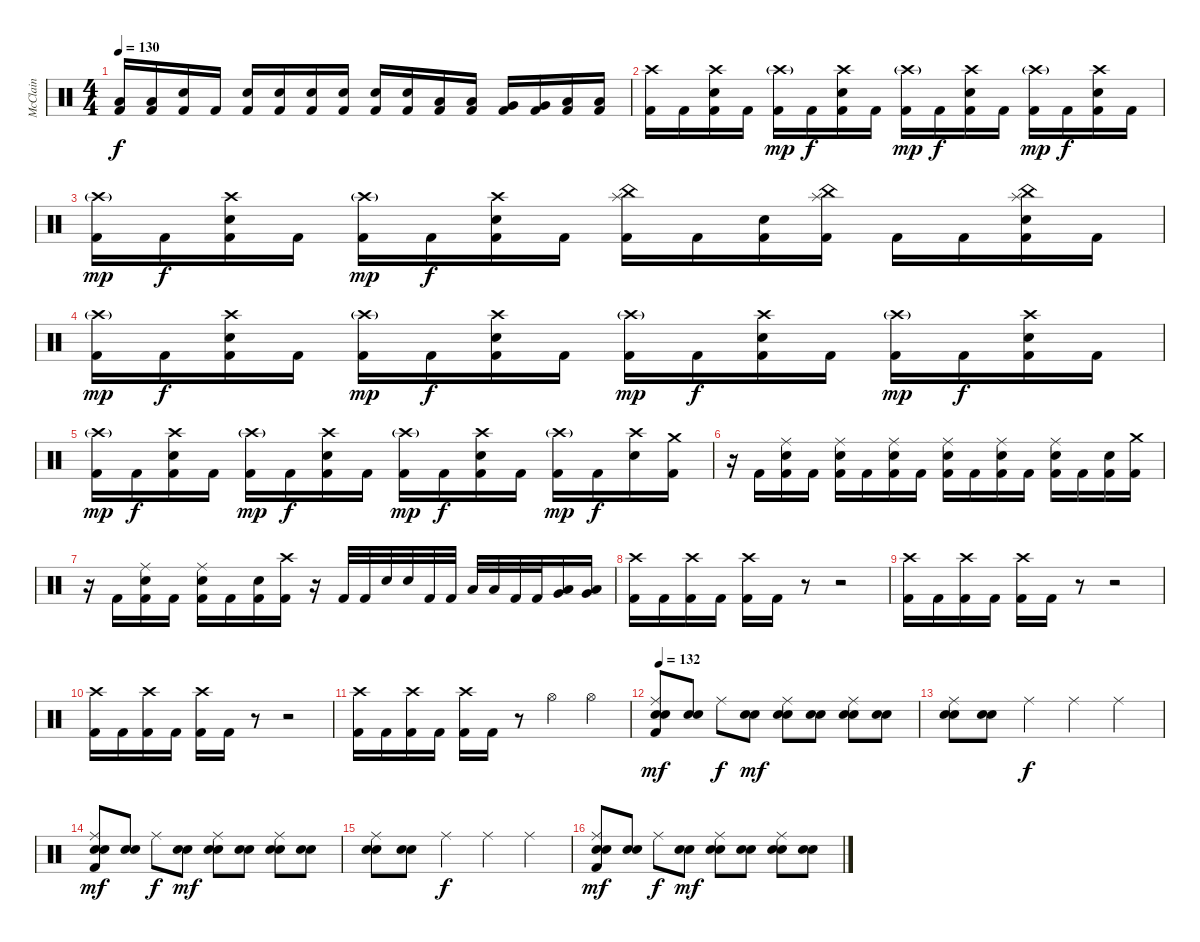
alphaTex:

\track ("McClain" "McClain") {instrument percussion}
\staff {score}
\articulation defaults
\ts (4 4)
\tempo 130
\clef neutral
\ks c
("Low Tom (hit)" "Kick (hit) 2").16{dy f} ("Low Tom (hit)" "Kick (hit) 2").16 ("Electric Snare (hit)" "Kick (hit) 2").16 "Kick (hit) 2".16 ("Electric Snare (hit)" "Kick (hit) 2").16 ("Electric Snare (hit)" "Kick (hit) 2").16 ("Electric Snare (hit)" "Kick (hit) 2").16 ("Electric Snare (hit)" "Kick (hit) 2").16 ("Electric Snare (hit)" "Kick (hit) 2").16 ("Electric Snare (hit)" "Kick (hit) 2").16 ("Low Tom (hit)" "Kick (hit) 2").16 ("Low Tom (hit)" "Kick (hit) 2").16 ("Very Low Tom (hit)" "Kick (hit) 2").16 ("Very Low Tom (hit)" "Kick (hit) 2").16 ("Low Floor Tom (hit)" "Kick (hit) 2").16 ("Low Floor Tom (hit)" "Kick (hit) 2").16 |
("Crash high (hit)" "Kick (hit) 2").16 "Kick (hit) 2".16 ("Crash high (hit)" "Electric Snare (hit)" "Kick (hit) 2").16 "Kick (hit) 2".16 ("Crash high (hit)"{g} "Kick (hit) 2").16{dy mp} "Kick (hit) 2".16{dy f} ("Crash high (hit)" "Electric Snare (hit)" "Kick (hit) 2").16 "Kick (hit) 2".16 ("Crash high (hit)"{g} "Kick (hit) 2").16{dy mp} "Kick (hit) 2".16{dy f} ("Crash high (hit)" "Electric Snare (hit)" "Kick (hit) 2").16 "Kick (hit) 2".16 ("Crash high (hit)"{g} "Kick (hit) 2").16{dy mp} "Kick (hit) 2".16{dy f} ("Crash high (hit)" "Electric Snare (hit)" "Kick (hit) 2").16 "Kick (hit) 2".16 |
("Crash high (hit)"{g} "Kick (hit) 2").16{dy mp} "Kick (hit) 2".16{dy f} ("Crash high (hit)" "Electric Snare (hit)" "Kick (hit) 2").16 "Kick (hit) 2".16 ("Crash high (hit)"{g} "Kick (hit) 2").16{dy mp} "Kick (hit) 2".16{dy f} ("Crash high (hit)" "Electric Snare (hit)" "Kick (hit) 2").16 "Kick (hit) 2".16 ("China (hit)" "Splash (hit)" "Kick (hit) 2").16 "Kick (hit) 2".16 ("Electric Snare (hit)" "Kick (hit) 2").16 ("China (hit)" "Splash (hit)" "Kick (hit) 2").16 "Kick (hit) 2".16 "Kick (hit) 2".16 ("China (hit)" "Splash (hit)" "Electric Snare (hit)" "Kick (hit) 2").16 "Kick (hit) 2".16 |
("Crash high (hit)"{g} "Kick (hit) 2").16{dy mp} "Kick (hit) 2".16{dy f} ("Crash high (hit)" "Electric Snare (hit)" "Kick (hit) 2").16 "Kick (hit) 2".16 ("Crash high (hit)"{g} "Kick (hit) 2").16{dy mp} "Kick (hit) 2".16{dy f} ("Crash high (hit)" "Electric Snare (hit)" "Kick (hit) 2").16 "Kick (hit) 2".16 ("Crash high (hit)"{g} "Kick (hit) 2").16{dy mp} "Kick (hit) 2".16{dy f} ("Crash high (hit)" "Electric Snare (hit)" "Kick (hit) 2").16 "Kick (hit) 2".16 ("Crash high (hit)"{g} "Kick (hit) 2").16{dy mp} "Kick (hit) 2".16{dy f} ("Crash high (hit)" "Electric Snare (hit)" "Kick (hit) 2").16 "Kick (hit) 2".16 |
("Crash high (hit)"{g} "Kick (hit) 2").16{dy mp} "Kick (hit) 2".16{dy f} ("Crash high (hit)" "Electric Snare (hit)" "Kick (hit) 2").16 "Kick (hit) 2".16 ("Crash high (hit)"{g} "Kick (hit) 2").16{dy mp} "Kick (hit) 2".16{dy f} ("Crash high (hit)" "Electric Snare (hit)" "Kick (hit) 2").16 "Kick (hit) 2".16 ("Crash high (hit)"{g} "Kick (hit) 2").16{dy mp} "Kick (hit) 2".16{dy f} ("Crash high (hit)" "Electric Snare (hit)" "Kick (hit) 2").16 "Kick (hit) 2".16 ("Crash high (hit)"{g} "Kick (hit) 2").16{dy mp} "Kick (hit) 2".16{dy f} ("Crash high (hit)" "Electric Snare (hit)").16 ("Crash medium (hit)" "Kick (hit) 2").16 |
r.16 "Kick (hit) 2".16 ("Ride (middle)" "Electric Snare (hit)" "Kick (hit) 2").16 "Kick (hit) 2".16 ("Ride (middle)" "Electric Snare (hit)" "Kick (hit) 2").16 "Kick (hit) 2".16 ("Ride (middle)" "Electric Snare (hit)" "Kick (hit) 2").16 "Kick (hit) 2".16 ("Ride (middle)" "Electric Snare (hit)" "Kick (hit) 2").16 "Kick (hit) 2".16 ("Ride (middle)" "Electric Snare (hit)" "Kick (hit) 2").16 "Kick (hit) 2".16 ("Ride (middle)" "Electric Snare (hit)" "Kick (hit) 2").16 "Kick (hit) 2".16 ("Electric Snare (hit)" "Kick (hit) 2").16 ("Crash medium (hit)" "Kick (hit) 2").16 |
r.16 "Kick (hit) 2".16 ("Ride (middle)" "Electric Snare (hit)" "Kick (hit) 2").16 "Kick (hit) 2".16 ("Ride (middle)" "Electric Snare (hit)" "Kick (hit) 2").16 "Kick (hit) 2".16 ("Electric Snare (hit)" "Kick (hit) 2").16 ("Crash high (hit)" "Kick (hit) 2").16 r.16 "Kick (hit) 2".32 "Kick (hit) 2".32 "Electric Snare (hit)".32 "Electric Snare (hit)".32 "Kick (hit) 2".32 "Kick (hit) 2".32 "Low Tom (hit)".32 "Low Tom (hit)".32 "Kick (hit) 2".32 "Kick (hit) 2".32 ("Very Low Tom (hit)" "Low Floor Tom (hit)").16 ("Very Low Tom (hit)" "Low Floor Tom (hit)").16 |
("Crash high (hit)" "Kick (hit) 2").16 "Kick (hit) 2".16 ("Crash high (hit)" "Kick (hit) 2").16 "Kick (hit) 2".16 ("Crash high (hit)" "Kick (hit) 2").16 "Kick (hit) 2".16 r.8 r.2 |
("Crash high (hit)" "Kick (hit) 2").16 "Kick (hit) 2".16 ("Crash high (hit)" "Kick (hit) 2").16 "Kick (hit) 2".16 ("Crash high (hit)" "Kick (hit) 2").16 "Kick (hit) 2".16 r.8 r.2 |
("Crash high (hit)" "Kick (hit) 2").16 "Kick (hit) 2".16 ("Crash high (hit)" "Kick (hit) 2").16 "Kick (hit) 2".16 ("Crash high (hit)" "Kick (hit) 2").16 "Kick (hit) 2".16 r.8 r.2 |
("Crash high (hit)" "Kick (hit) 2").16 "Kick (hit) 2".16 ("Crash high (hit)" "Kick (hit) 2").16 "Kick (hit) 2".16 ("Crash high (hit)" "Kick (hit) 2").16 "Kick (hit) 2".16 r.8 "Hi-Hat (open)".4 "Hi-Hat (open)".4 |
\tempo 132
("Ride (middle)" "Snare (hit) 2" "Electric Snare (hit)" "Kick (hit) 2").8{dy mf} ("Snare (hit) 2" "Electric Snare (hit)").8 "Ride (middle)".8{dy f} ("Snare (hit) 2" "Electric Snare (hit)").8{dy mf} ("Ride (middle)" "Snare (hit) 2" "Electric Snare (hit)").8 ("Snare (hit) 2" "Electric Snare (hit)").8 ("Ride (middle)" "Snare (hit) 2" "Electric Snare (hit)").8 ("Snare (hit) 2" "Electric Snare (hit)").8 |
("Ride (middle)" "Snare (hit) 2" "Electric Snare (hit)").8 ("Snare (hit) 2" "Electric Snare (hit)").8 "Ride (middle)".4{dy f} "Ride (middle)".4 "Ride (middle)".4 |
("Ride (middle)" "Snare (hit) 2" "Electric Snare (hit)" "Kick (hit) 2").8{dy mf} ("Snare (hit) 2" "Electric Snare (hit)").8 "Ride (middle)".8{dy f} ("Snare (hit) 2" "Electric Snare (hit)").8{dy mf} ("Ride (middle)" "Snare (hit) 2" "Electric Snare (hit)").8 ("Snare (hit) 2" "Electric Snare (hit)").8 ("Ride (middle)" "Snare (hit) 2" "Electric Snare (hit)").8 ("Snare (hit) 2" "Electric Snare (hit)").8 |
("Ride (middle)" "Snare (hit) 2" "Electric Snare (hit)").8 ("Snare (hit) 2" "Electric Snare (hit)").8 "Ride (middle)".4{dy f} "Ride (middle)".4 "Ride (middle)".4 |
("Ride (middle)" "Snare (hit) 2" "Electric Snare (hit)" "Kick (hit) 2").8{dy mf} ("Snare (hit) 2" "Electric Snare (hit)").8 "Ride (middle)".8{dy f} ("Snare (hit) 2" "Electric Snare (hit)").8{dy mf} ("Ride (middle)" "Snare (hit) 2" "Electric Snare (hit)").8 ("Snare (hit) 2" "Electric Snare (hit)").8 ("Ride (middle)" "Snare (hit) 2" "Electric Snare (hit)").8 ("Snare (hit) 2" "Electric Snare (hit)").8
